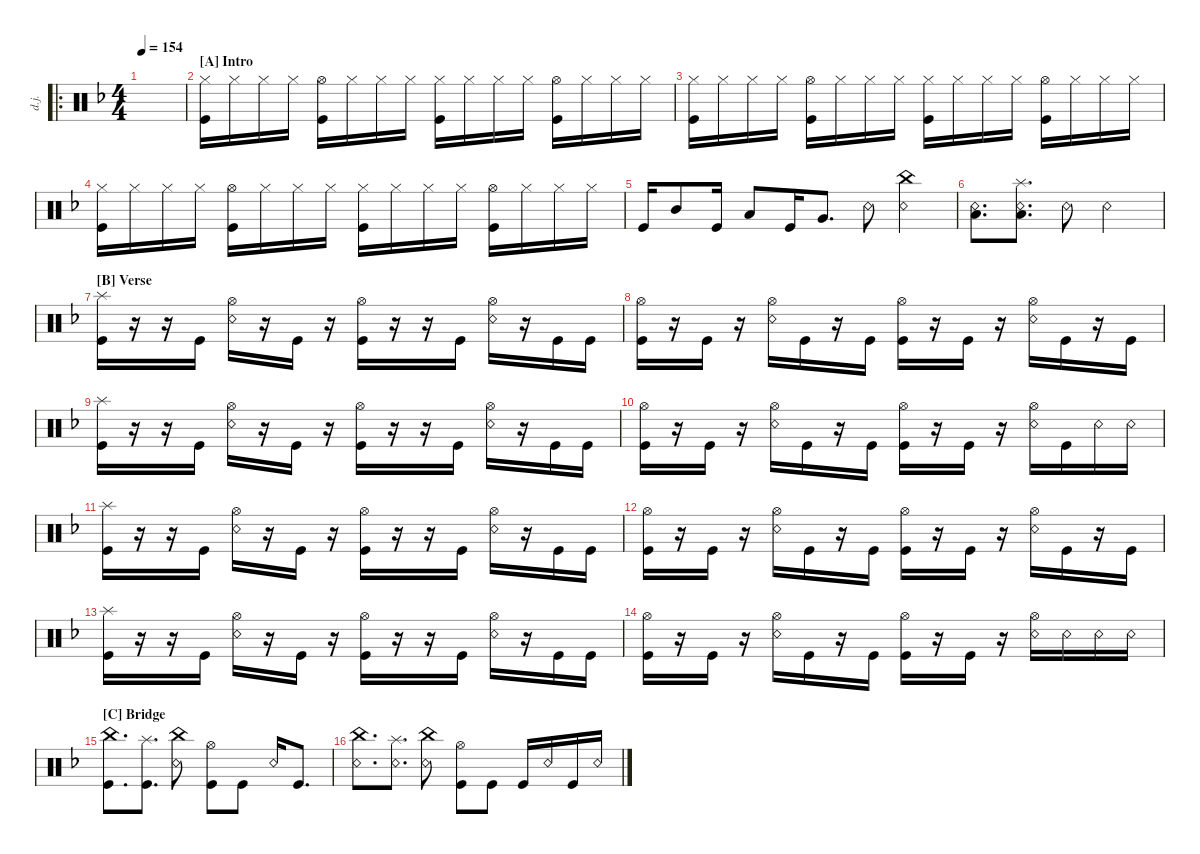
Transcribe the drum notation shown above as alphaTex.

\defaultSystemsLayout 4
\hideDynamics
\bracketExtendMode nobrackets
\otherSystemsTrackNameOrientation horizontal
\track ("Drumkit Jason" "d.j.") {instrument percussion}
\staff {score}
\articulation defaults
\ro
\ts (4 4)
\tempo 154
\clef neutral
\ks dminor
|
\section ("A" "Intro")
("Hi-Hat (closed)" "Kick (hit)").16 "Hi-Hat (closed)".16 "Hi-Hat (closed)".16 "Hi-Hat (closed)".16 ("Hi-Hat (open)" "Kick (hit)").16 "Hi-Hat (closed)".16 "Hi-Hat (closed)".16 "Hi-Hat (closed)".16 ("Hi-Hat (closed)" "Kick (hit)").16 "Hi-Hat (closed)".16 "Hi-Hat (closed)".16 "Hi-Hat (closed)".16 ("Hi-Hat (open)" "Kick (hit)").16 "Hi-Hat (closed)".16 "Hi-Hat (closed)".16 "Hi-Hat (closed)".16 |
("Hi-Hat (closed)" "Kick (hit)").16 "Hi-Hat (closed)".16 "Hi-Hat (closed)".16 "Hi-Hat (closed)".16 ("Hi-Hat (open)" "Kick (hit)").16 "Hi-Hat (closed)".16 "Hi-Hat (closed)".16 "Hi-Hat (closed)".16 ("Hi-Hat (closed)" "Kick (hit)").16 "Hi-Hat (closed)".16 "Hi-Hat (closed)".16 "Hi-Hat (closed)".16 ("Hi-Hat (open)" "Kick (hit)").16 "Hi-Hat (closed)".16 "Hi-Hat (closed)".16 "Hi-Hat (closed)".16 |
("Hi-Hat (closed)" "Kick (hit)").16 "Hi-Hat (closed)".16 "Hi-Hat (closed)".16 "Hi-Hat (closed)".16 ("Hi-Hat (open)" "Kick (hit)").16 "Hi-Hat (closed)".16 "Hi-Hat (closed)".16 "Hi-Hat (closed)".16 ("Hi-Hat (closed)" "Kick (hit)").16 "Hi-Hat (closed)".16 "Hi-Hat (closed)".16 "Hi-Hat (closed)".16 ("Hi-Hat (open)" "Kick (hit)").16 "Hi-Hat (closed)".16 "Hi-Hat (closed)".16 "Hi-Hat (closed)".16 |
"Kick (hit)".16 "Mid Tom (hit)".8 "Kick (hit)".16 "Low Tom (hit)".8 "Kick (hit)".16 "Very Low Tom (hit)".8{d} "Snare (rim shot)".8 ("Snare (rim shot)" "China (hit)").4 |
("Snare (rim shot)" "Low Tom (hit)").8{d} ("Low Tom (hit)" "Snare (rim shot)" "Splash (hit)").8{d} "Snare (rim shot)".8 "Snare (rim shot)".2 |
\section ("B" "Verse")
("Splash (hit)" "Kick (hit)").16 r.16 r.16 "Kick (hit)".16 ("Hi-Hat (open)" "Snare (rim shot)").16 r.16 "Kick (hit)".16 r.16 ("Hi-Hat (open)" "Kick (hit)").16 r.16 r.16 "Kick (hit)".16 ("Hi-Hat (open)" "Snare (rim shot)").16 r.16 "Kick (hit)".16 "Kick (hit)".16 |
("Kick (hit)" "Hi-Hat (open)").16 r.16 "Kick (hit)".16 r.16 ("Hi-Hat (open)" "Snare (rim shot)").16 "Kick (hit)".16 r.16 "Kick (hit)".16 ("Kick (hit)" "Hi-Hat (open)").16 r.16 "Kick (hit)".16 r.16 ("Hi-Hat (open)" "Snare (rim shot)").16 "Kick (hit)".16 r.16 "Kick (hit)".16 |
("Splash (hit)" "Kick (hit)").16 r.16 r.16 "Kick (hit)".16 ("Hi-Hat (open)" "Snare (rim shot)").16 r.16 "Kick (hit)".16 r.16 ("Hi-Hat (open)" "Kick (hit)").16 r.16 r.16 "Kick (hit)".16 ("Hi-Hat (open)" "Snare (rim shot)").16 r.16 "Kick (hit)".16 "Kick (hit)".16 |
("Kick (hit)" "Hi-Hat (open)").16 r.16 "Kick (hit)".16 r.16 ("Hi-Hat (open)" "Snare (rim shot)").16 "Kick (hit)".16 r.16 "Kick (hit)".16 ("Kick (hit)" "Hi-Hat (open)").16 r.16 "Kick (hit)".16 r.16 ("Hi-Hat (open)" "Snare (rim shot)").16 "Kick (hit)".16 "Snare (rim shot)".16 "Snare (rim shot)".16 |
("Splash (hit)" "Kick (hit)").16 r.16 r.16 "Kick (hit)".16 ("Hi-Hat (open)" "Snare (rim shot)").16 r.16 "Kick (hit)".16 r.16 ("Hi-Hat (open)" "Kick (hit)").16 r.16 r.16 "Kick (hit)".16 ("Hi-Hat (open)" "Snare (rim shot)").16 r.16 "Kick (hit)".16 "Kick (hit)".16 |
("Kick (hit)" "Hi-Hat (open)").16 r.16 "Kick (hit)".16 r.16 ("Hi-Hat (open)" "Snare (rim shot)").16 "Kick (hit)".16 r.16 "Kick (hit)".16 ("Kick (hit)" "Hi-Hat (open)").16 r.16 "Kick (hit)".16 r.16 ("Hi-Hat (open)" "Snare (rim shot)").16 "Kick (hit)".16 r.16 "Kick (hit)".16 |
("Splash (hit)" "Kick (hit)").16 r.16 r.16 "Kick (hit)".16 ("Hi-Hat (open)" "Snare (rim shot)").16 r.16 "Kick (hit)".16 r.16 ("Hi-Hat (open)" "Kick (hit)").16 r.16 r.16 "Kick (hit)".16 ("Hi-Hat (open)" "Snare (rim shot)").16 r.16 "Kick (hit)".16 "Kick (hit)".16 |
("Kick (hit)" "Hi-Hat (open)").16 r.16 "Kick (hit)".16 r.16 ("Hi-Hat (open)" "Snare (rim shot)").16 "Kick (hit)".16 r.16 "Kick (hit)".16 ("Kick (hit)" "Hi-Hat (open)").16 r.16 "Kick (hit)".16 r.16 ("Hi-Hat (open)" "Snare (rim shot)").16 "Snare (rim shot)".16 "Snare (rim shot)".16 "Snare (rim shot)".16 |
\section ("C" "Bridge")
("China (hit)" "Kick (hit)").8{d} ("Splash (hit)" "Kick (hit)").8{d} ("China (hit)" "Snare (rim shot)").8 ("Kick (hit)" "Hi-Hat (open)").8 "Kick (hit)".8 "Snare (rim shot)".16 "Kick (hit)".8{d} |
("China (hit)" "Snare (rim shot)").8{d} ("Splash (hit)" "Snare (rim shot)").8{d} ("China (hit)" "Snare (rim shot)").8 ("Kick (hit)" "Hi-Hat (open)").8 "Kick (hit)".8 "Kick (hit)".16 "Snare (rim shot)".16 "Kick (hit)".16 "Snare (rim shot)".16
